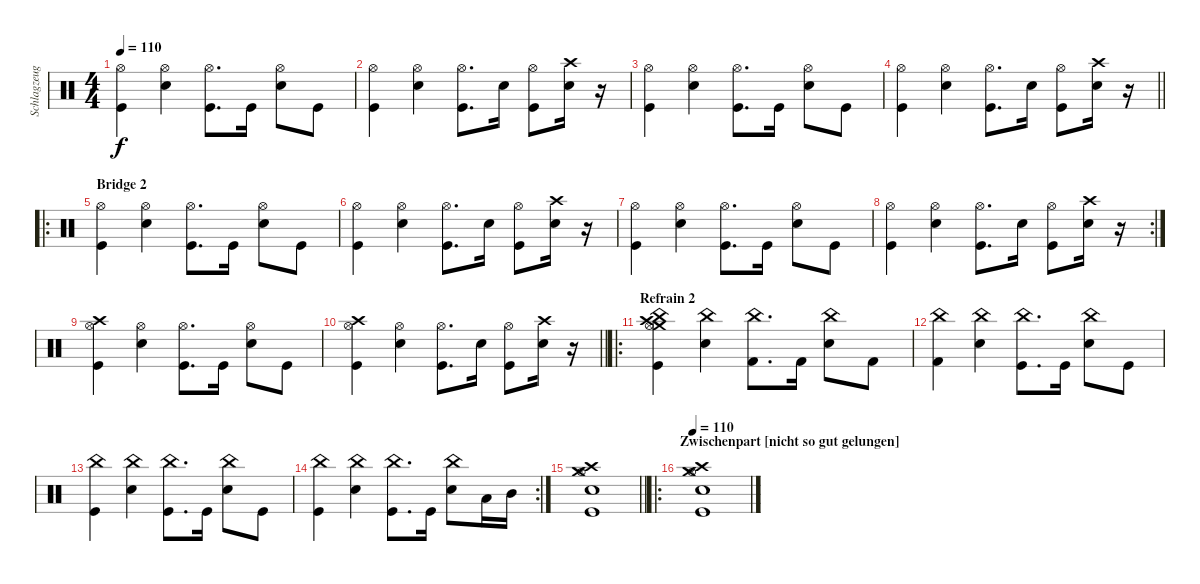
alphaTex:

\track ("Schlagzeug" "Schlagzeug") {instrument percussion}
\staff {score}
\articulation defaults
\ts (4 4)
\tempo 110
\clef neutral
\ks c
("Hi-Hat (open)" "Kick (hit)").4{dy f} ("Hi-Hat (open)" "Snare (hit) 2").4 ("Hi-Hat (open)" "Kick (hit)").8{d} "Kick (hit)".16 ("Hi-Hat (open)" "Snare (hit) 2").8 "Kick (hit)".8 |
("Hi-Hat (open)" "Kick (hit)").4 ("Hi-Hat (open)" "Snare (hit) 2").4 ("Hi-Hat (open)" "Kick (hit)").8{d} "Snare (hit) 2".16 ("Hi-Hat (open)" "Kick (hit)").8 ("Snare (hit) 2" "Crash high (hit)").16 r.16 |
("Hi-Hat (open)" "Kick (hit)").4 ("Hi-Hat (open)" "Snare (hit) 2").4 ("Hi-Hat (open)" "Kick (hit)").8{d} "Kick (hit)".16 ("Hi-Hat (open)" "Snare (hit) 2").8 "Kick (hit)".8 |
\barLineRight lightlight
("Hi-Hat (open)" "Kick (hit)").4 ("Hi-Hat (open)" "Snare (hit) 2").4 ("Hi-Hat (open)" "Kick (hit)").8{d} "Snare (hit) 2".16 ("Hi-Hat (open)" "Kick (hit)").8 ("Snare (hit) 2" "Crash high (hit)").16 r.16 |
\ro
\section ("" "Bridge 2")
("Hi-Hat (open)" "Kick (hit)").4 ("Hi-Hat (open)" "Snare (hit) 2").4 ("Hi-Hat (open)" "Kick (hit)").8{d} "Kick (hit)".16 ("Hi-Hat (open)" "Snare (hit) 2").8 "Kick (hit)".8 |
("Hi-Hat (open)" "Kick (hit)").4 ("Hi-Hat (open)" "Snare (hit) 2").4 ("Hi-Hat (open)" "Kick (hit)").8{d} "Snare (hit) 2".16 ("Hi-Hat (open)" "Kick (hit)").8 ("Snare (hit) 2" "Crash high (hit)").16 r.16 |
("Hi-Hat (open)" "Kick (hit)").4 ("Hi-Hat (open)" "Snare (hit) 2").4 ("Hi-Hat (open)" "Kick (hit)").8{d} "Kick (hit)".16 ("Hi-Hat (open)" "Snare (hit) 2").8 "Kick (hit)".8 |
\rc 2
("Hi-Hat (open)" "Kick (hit)").4 ("Hi-Hat (open)" "Snare (hit) 2").4 ("Hi-Hat (open)" "Kick (hit)").8{d} "Snare (hit) 2".16 ("Hi-Hat (open)" "Kick (hit)").8 ("Snare (hit) 2" "Crash high (hit)").16 r.16 |
("Crash high (hit)" "Hi-Hat (open)" "Kick (hit)").4 ("Hi-Hat (open)" "Snare (hit) 2").4 ("Hi-Hat (open)" "Kick (hit)").8{d} "Kick (hit)".16 ("Hi-Hat (open)" "Snare (hit) 2").8 "Kick (hit)".8 |
\barLineRight lightlight
("Crash high (hit)" "Hi-Hat (open)" "Kick (hit)").4 ("Hi-Hat (open)" "Snare (hit) 2").4 ("Hi-Hat (open)" "Kick (hit)").8{d} "Snare (hit) 2".16 ("Hi-Hat (open)" "Kick (hit)").8 ("Snare (hit) 2" "Crash high (hit)").16 r.16 |
\ro
\section ("" "Refrain 2")
("Kick (hit)" "Crash high (hit)" "China (hit)" "Crash medium (hit)" "Hi-Hat (open)").4 ("China (hit)" "Snare (hit) 2").4 ("China (hit)" "Kick (hit) 2").8{d} "Kick (hit) 2".16 ("China (hit)" "Snare (hit) 2").8 "Kick (hit) 2".8 |
("China (hit)" "Kick (hit) 2").4 ("China (hit)" "Snare (hit) 2").4 ("China (hit)" "Kick (hit)").8{d} "Kick (hit)".16 ("China (hit)" "Snare (hit) 2").8 "Kick (hit)".8 |
("China (hit)" "Kick (hit)").4 ("China (hit)" "Snare (hit) 2").4 ("China (hit)" "Kick (hit)").8{d} "Kick (hit)".16 ("China (hit)" "Snare (hit) 2").8 "Kick (hit)".8 |
\rc 2
("China (hit)" "Kick (hit)").4 ("China (hit)" "Snare (hit) 2").4 ("China (hit)" "Kick (hit)").8{d} "Kick (hit)".16 ("Snare (hit) 2" "China (hit)").8 "Low Floor Tom (hit)".16 "Mid Tom (hit)".16 |
\barLineRight lightlight
("Hi-Hat (open)" "Crash medium (hit)" "Crash high (hit)" "Snare (hit) 2" "Kick (hit)").1 |
\ro
\section ("" "Zwischenpart [nicht so gut gelungen]")
\tempo 110
("Hi-Hat (open)" "Crash medium (hit)" "Crash high (hit)" "Snare (hit) 2" "Kick (hit)").1
